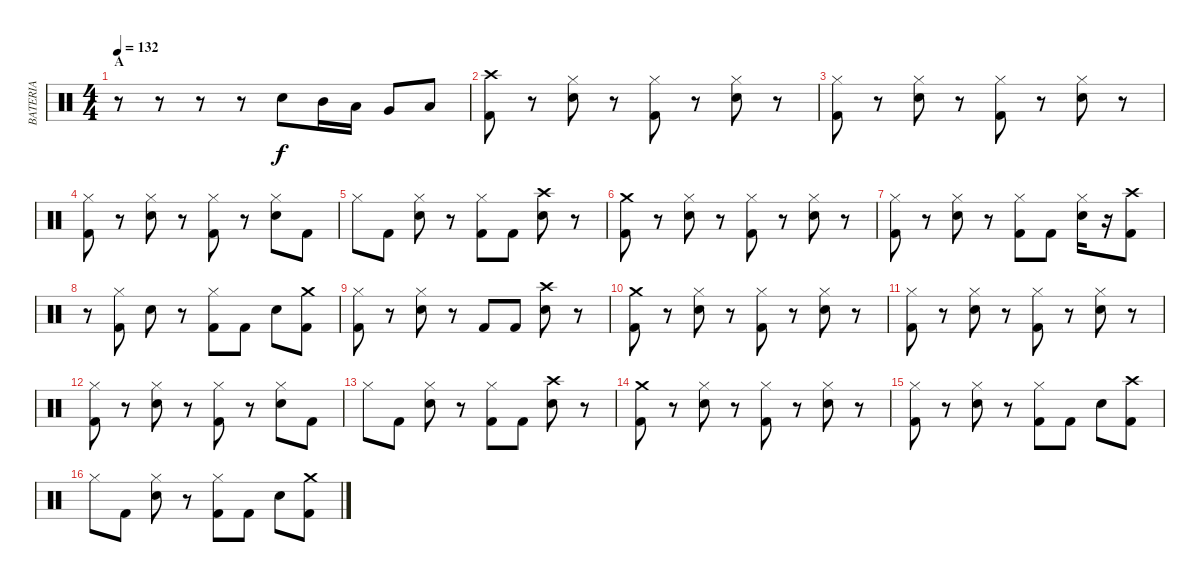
\track ("BATERIA" "BATERIA") {instrument percussion}
\staff {score}
\articulation defaults
\ts (4 4)
\section ("" "A")
\tempo 132
\clef neutral
\ks c
r.8{dy f} r.8 r.8 r.8 "Electric Snare (hit)".8 "Mid Tom (hit)".16 "Low Tom (hit)".16 "Very Low Tom (hit)".8 "Low Tom (hit)".8 |
("Kick (hit) 2" "Crash high (hit)").8 r.8 ("Hi-Hat (closed)" "Electric Snare (hit)").8 r.8 ("Kick (hit) 2" "Hi-Hat (closed)").8 r.8 ("Hi-Hat (closed)" "Electric Snare (hit)").8 r.8 |
("Kick (hit) 2" "Hi-Hat (closed)").8 r.8 ("Hi-Hat (closed)" "Electric Snare (hit)").8 r.8 ("Kick (hit) 2" "Hi-Hat (closed)").8 r.8 ("Hi-Hat (closed)" "Electric Snare (hit)").8 r.8 |
("Kick (hit) 2" "Hi-Hat (closed)").8 r.8 ("Hi-Hat (closed)" "Electric Snare (hit)").8 r.8 ("Kick (hit) 2" "Hi-Hat (closed)").8 r.8 ("Hi-Hat (closed)" "Electric Snare (hit)").8 "Kick (hit) 2".8 |
"Hi-Hat (closed)".8 "Kick (hit) 2".8 ("Hi-Hat (closed)" "Electric Snare (hit)").8 r.8 ("Kick (hit) 2" "Hi-Hat (closed)").8 "Kick (hit) 2".8 ("Crash high (hit)" "Electric Snare (hit)").8 r.8 |
("Crash medium (hit)" "Kick (hit) 2").8 r.8 ("Hi-Hat (closed)" "Electric Snare (hit)").8 r.8 ("Kick (hit) 2" "Hi-Hat (closed)").8 r.8 ("Hi-Hat (closed)" "Electric Snare (hit)").8 r.8 |
("Kick (hit) 2" "Hi-Hat (closed)").8 r.8 ("Hi-Hat (closed)" "Electric Snare (hit)").8 r.8 ("Kick (hit) 2" "Hi-Hat (closed)").8 "Kick (hit) 2".8 ("Hi-Hat (closed)" "Electric Snare (hit)").16 r.16 ("Kick (hit) 2" "Crash high (hit)").8 |
r.8 ("Kick (hit) 2" "Hi-Hat (closed)").8 "Electric Snare (hit)".8 r.8 ("Kick (hit) 2" "Hi-Hat (closed)").8 "Kick (hit) 2".8 "Electric Snare (hit)".8 ("Kick (hit) 2" "Crash medium (hit)").8 |
("Kick (hit) 2" "Hi-Hat (closed)").8 r.8 ("Hi-Hat (closed)" "Electric Snare (hit)").8 r.8 "Kick (hit) 2".8 "Kick (hit) 2".8 ("Crash high (hit)" "Electric Snare (hit)").8 r.8 |
("Kick (hit) 2" "Crash medium (hit)").8 r.8 ("Hi-Hat (closed)" "Electric Snare (hit)").8 r.8 ("Kick (hit) 2" "Hi-Hat (closed)").8 r.8 ("Hi-Hat (closed)" "Electric Snare (hit)").8 r.8 |
("Kick (hit) 2" "Hi-Hat (closed)").8 r.8 ("Hi-Hat (closed)" "Electric Snare (hit)").8 r.8 ("Kick (hit) 2" "Hi-Hat (closed)").8 r.8 ("Hi-Hat (closed)" "Electric Snare (hit)").8 r.8 |
("Kick (hit) 2" "Hi-Hat (closed)").8 r.8 ("Hi-Hat (closed)" "Electric Snare (hit)").8 r.8 ("Kick (hit) 2" "Hi-Hat (closed)").8 r.8 ("Hi-Hat (closed)" "Electric Snare (hit)").8 "Kick (hit) 2".8 |
"Hi-Hat (closed)".8 "Kick (hit) 2".8 ("Hi-Hat (closed)" "Electric Snare (hit)").8 r.8 ("Kick (hit) 2" "Hi-Hat (closed)").8 "Kick (hit) 2".8 ("Crash high (hit)" "Electric Snare (hit)").8 r.8 |
("Kick (hit) 2" "Crash medium (hit)").8 r.8 ("Hi-Hat (closed)" "Electric Snare (hit)").8 r.8 ("Kick (hit) 2" "Hi-Hat (closed)").8 r.8 ("Hi-Hat (closed)" "Electric Snare (hit)").8 r.8 |
("Kick (hit) 2" "Hi-Hat (closed)").8 r.8 ("Hi-Hat (closed)" "Electric Snare (hit)").8 r.8 ("Kick (hit) 2" "Hi-Hat (closed)").8 "Kick (hit) 2".8 "Electric Snare (hit)".8 ("Kick (hit) 2" "Crash high (hit)").8 |
"Hi-Hat (closed)".8 "Kick (hit) 2".8 ("Hi-Hat (closed)" "Electric Snare (hit)").8 r.8 ("Kick (hit) 2" "Hi-Hat (closed)").8 "Kick (hit) 2".8 "Electric Snare (hit)".8 ("Kick (hit) 2" "Crash medium (hit)").8
